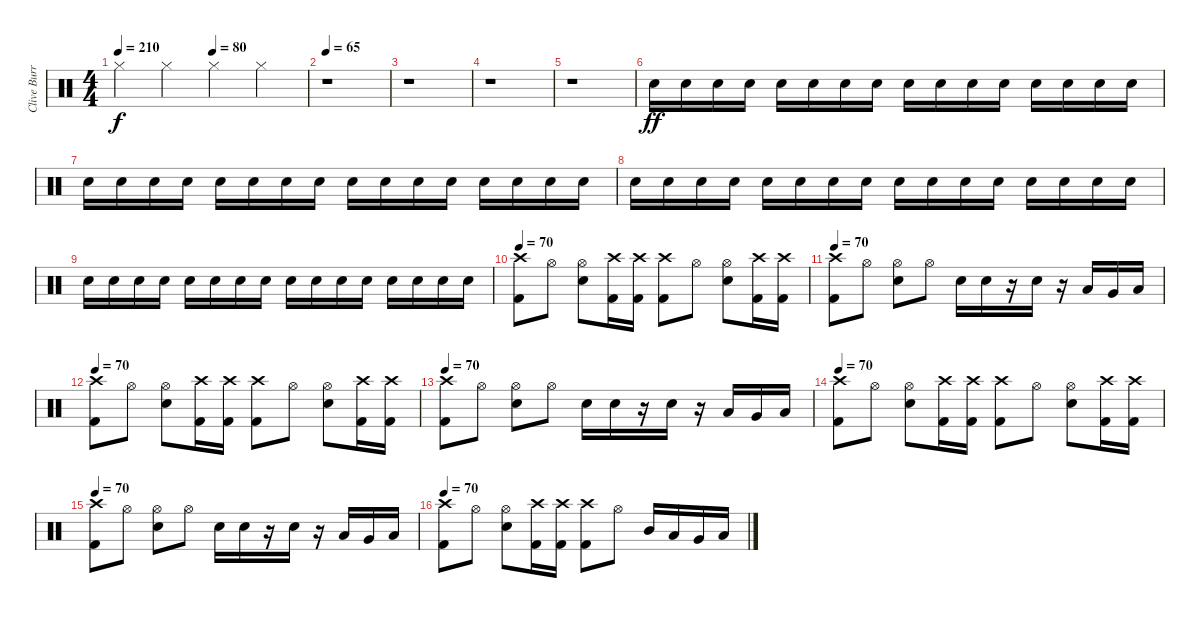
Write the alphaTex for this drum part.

\track ("Clive Burr" "Clive Burr") {instrument percussion}
\staff {score}
\articulation defaults
\ts (4 4)
\tempo 210
\tempo (80 0.5)
\tempo 210
\clef neutral
\ks c "Hi-Hat (closed)".4{dy f} "Hi-Hat (closed)".4 "Hi-Hat (closed)".4 "Hi-Hat (closed)".4
|
\tempo 70
\tempo 65
r.1 |
r.1 |
r.1 |
r.1 |
"Snare (hit) 2".16{dy ff volume 0} "Snare (hit) 2".16{volume 0} "Snare (hit) 2".16{volume 0} "Snare (hit) 2".16{volume 1} "Snare (hit) 2".16{volume 1} "Snare (hit) 2".16{volume 1} "Snare (hit) 2".16{volume 2} "Snare (hit) 2".16{volume 2} "Snare (hit) 2".16{volume 2} "Snare (hit) 2".16{volume 2} "Snare (hit) 2".16{volume 2} "Snare (hit) 2".16{volume 3} "Snare (hit) 2".16{volume 3} "Snare (hit) 2".16{volume 3} "Snare (hit) 2".16{volume 4} "Snare (hit) 2".16{volume 4} |
"Snare (hit) 2".16{volume 4} "Snare (hit) 2".16{volume 4} "Snare (hit) 2".16{volume 4} "Snare (hit) 2".16{volume 5} "Snare (hit) 2".16{volume 5} "Snare (hit) 2".16{volume 5} "Snare (hit) 2".16{volume 6} "Snare (hit) 2".16{volume 6} "Snare (hit) 2".16{volume 6} "Snare (hit) 2".16{volume 6} "Snare (hit) 2".16{volume 6} "Snare (hit) 2".16{volume 7} "Snare (hit) 2".16{volume 7} "Snare (hit) 2".16{volume 7} "Snare (hit) 2".16{volume 8} "Snare (hit) 2".16{volume 8} |
"Snare (hit) 2".16{volume 8} "Snare (hit) 2".16{volume 8} "Snare (hit) 2".16{volume 8} "Snare (hit) 2".16{volume 9} "Snare (hit) 2".16{volume 9} "Snare (hit) 2".16{volume 9} "Snare (hit) 2".16{volume 10} "Snare (hit) 2".16{volume 10} "Snare (hit) 2".16{volume 10} "Snare (hit) 2".16{volume 10} "Snare (hit) 2".16{volume 10} "Snare (hit) 2".16{volume 11} "Snare (hit) 2".16{volume 11} "Snare (hit) 2".16{volume 11} "Snare (hit) 2".16{volume 12} "Snare (hit) 2".16{volume 12} |
"Snare (hit) 2".16{volume 12} "Snare (hit) 2".16{volume 12} "Snare (hit) 2".16{volume 12} "Snare (hit) 2".16{volume 13} "Snare (hit) 2".16{volume 13} "Snare (hit) 2".16{volume 13} "Snare (hit) 2".16{volume 13} "Snare (hit) 2".16{volume 14} "Snare (hit) 2".16{volume 14} "Snare (hit) 2".16{volume 14} "Snare (hit) 2".16{volume 14} "Snare (hit) 2".16{volume 15} "Snare (hit) 2".16{volume 15} "Snare (hit) 2".16{volume 15} "Snare (hit) 2".16{volume 15} "Snare (hit) 2".16{volume 16} |
\tempo 70
("Kick (hit) 2" "Crash high (hit)").8{volume 16} "Hi-Hat (open)".8 ("Snare (hit) 2" "Hi-Hat (open)").8 ("Kick (hit) 2" "Crash high (hit)").16 ("Kick (hit) 2" "Crash high (hit)").16 ("Kick (hit) 2" "Crash high (hit)").8 "Hi-Hat (open)".8 ("Snare (hit) 2" "Hi-Hat (open)").8 ("Kick (hit) 2" "Crash high (hit)").16 ("Kick (hit) 2" "Crash high (hit)").16 |
\tempo 70
("Kick (hit) 2" "Crash high (hit)").8 "Hi-Hat (open)".8 ("Snare (hit) 2" "Hi-Hat (open)").8 "Hi-Hat (open)".8 "Snare (hit) 2".16 "Snare (hit) 2".16 r.16 "Snare (hit) 2".16 r.16 "Low Tom (hit)".16 "Very Low Tom (hit)".16 "Low Floor Tom (hit)".16 |
\tempo 70
("Kick (hit) 2" "Crash high (hit)").8 "Hi-Hat (open)".8 ("Snare (hit) 2" "Hi-Hat (open)").8 ("Kick (hit) 2" "Crash high (hit)").16 ("Kick (hit) 2" "Crash high (hit)").16 ("Kick (hit) 2" "Crash high (hit)").8 "Hi-Hat (open)".8 ("Snare (hit) 2" "Hi-Hat (open)").8 ("Kick (hit) 2" "Crash high (hit)").16 ("Kick (hit) 2" "Crash high (hit)").16 |
\tempo 70
("Kick (hit) 2" "Crash high (hit)").8 "Hi-Hat (open)".8 ("Snare (hit) 2" "Hi-Hat (open)").8 "Hi-Hat (open)".8 "Snare (hit) 2".16 "Snare (hit) 2".16 r.16 "Snare (hit) 2".16 r.16 "Low Tom (hit)".16 "Very Low Tom (hit)".16 "Low Floor Tom (hit)".16 |
\tempo 70
("Kick (hit) 2" "Crash high (hit)").8 "Hi-Hat (open)".8 ("Snare (hit) 2" "Hi-Hat (open)").8 ("Kick (hit) 2" "Crash high (hit)").16 ("Kick (hit) 2" "Crash high (hit)").16 ("Kick (hit) 2" "Crash high (hit)").8 "Hi-Hat (open)".8 ("Snare (hit) 2" "Hi-Hat (open)").8 ("Kick (hit) 2" "Crash high (hit)").16 ("Kick (hit) 2" "Crash high (hit)").16 |
\tempo 70
("Kick (hit) 2" "Crash high (hit)").8 "Hi-Hat (open)".8 ("Snare (hit) 2" "Hi-Hat (open)").8 "Hi-Hat (open)".8 "Snare (hit) 2".16 "Snare (hit) 2".16 r.16 "Snare (hit) 2".16 r.16 "Low Tom (hit)".16 "Very Low Tom (hit)".16 "Low Floor Tom (hit)".16 |
\tempo 70
("Kick (hit) 2" "Crash high (hit)").8 "Hi-Hat (open)".8 ("Snare (hit) 2" "Hi-Hat (open)").8 ("Kick (hit) 2" "Crash high (hit)").16 ("Kick (hit) 2" "Crash high (hit)").16 ("Kick (hit) 2" "Crash high (hit)").8 "Hi-Hat (open)".8 "Mid Tom (hit)".16 "Low Tom (hit)".16 "Very Low Tom (hit)".16 "Low Floor Tom (hit)".16
